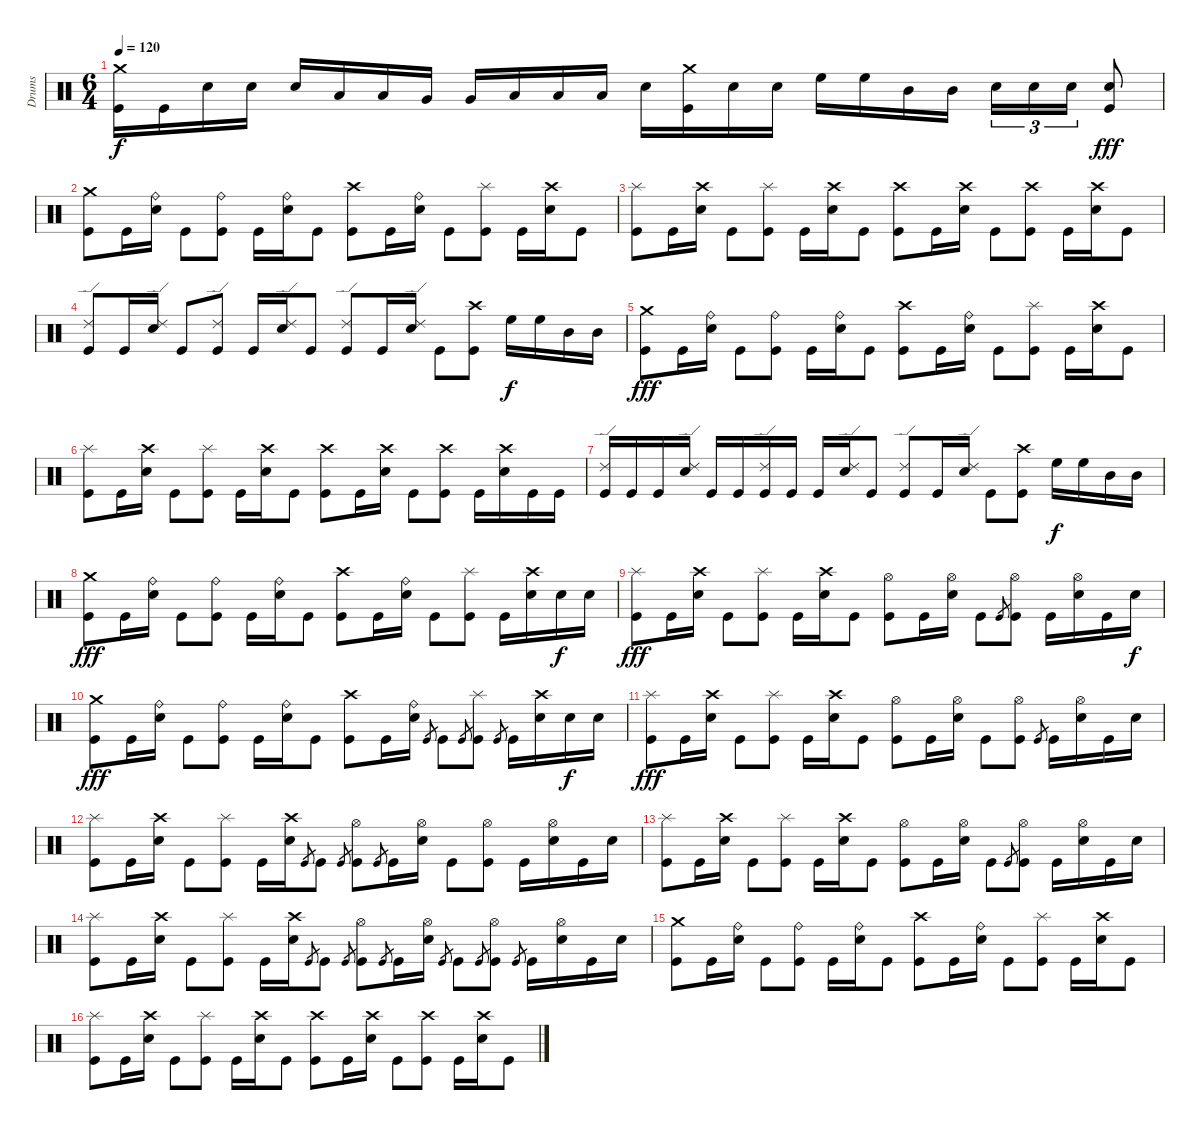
\track ("Drums" "Drums") {instrument percussion}
\staff {score}
\articulation defaults
\ts (6 4)
\tempo 120
\clef neutral
\ks c
("Crash medium (hit)" "Kick (hit)").16{dy f} "Kick (hit)".16 "Electric Snare (hit)".16 "Electric Snare (hit)".16 "Electric Snare (hit)".16 "Low Tom (hit)".16 "Low Tom (hit)".16 "Very Low Tom (hit)".16 "Very Low Tom (hit)".16 "Low Floor Tom (hit)".16 "Low Floor Tom (hit)".16 "Low Floor Tom (hit)".16 "Electric Snare (hit)".16 ("Crash medium (hit)" "Kick (hit)").16 "Electric Snare (hit)".16 "Electric Snare (hit)".16 "High Floor Tom (hit)".16 "High Floor Tom (hit)".16 "Mid Tom (hit)".16 "Mid Tom (hit)".16 "Electric Snare (hit)".16{tu (3 2)} "Electric Snare (hit)".16{tu (3 2)} "Electric Snare (hit)".16{tu (3 2)} ("Electric Snare (hit)" "Kick (hit)").8{dy fff} |
("Crash medium (hit)" "Kick (hit)").8 "Kick (hit)".16 ("Ride (bell)" "Electric Snare (hit)").16 "Kick (hit)".8 ("Ride (bell)" "Kick (hit)").8 "Kick (hit)".16 ("Ride (bell)" "Electric Snare (hit)").16 "Kick (hit)".8 ("Crash high (hit)" "Kick (hit)").8 "Kick (hit)".16 ("Ride (bell)" "Electric Snare (hit)").16 "Kick (hit)".8 ("Splash (hit)" "Kick (hit)").8 "Kick (hit)".16 ("Crash high (hit)" "Electric Snare (hit)").16 "Kick (hit)".8 |
("Splash (hit)" "Kick (hit)").8 "Kick (hit)".16 ("Crash high (hit)" "Electric Snare (hit)").16 "Kick (hit)".8 ("Splash (hit)" "Kick (hit)").8 "Kick (hit)".16 ("Crash high (hit)" "Electric Snare (hit)").16 "Kick (hit)".8 ("Crash high (hit)" "Kick (hit)").8 "Kick (hit)".16 ("Crash high (hit)" "Electric Snare (hit)").16 "Kick (hit)".8 ("Crash high (hit)" "Kick (hit)").8 "Kick (hit)".16 ("Crash high (hit)" "Electric Snare (hit)").16 "Kick (hit)".8 |
("Ride (edge) 2" "Kick (hit)").8 "Kick (hit)".16 ("Ride (edge) 2" "Electric Snare (hit)").16 "Kick (hit)".8 ("Ride (edge) 2" "Kick (hit)").8 "Kick (hit)".16 ("Ride (edge) 2" "Electric Snare (hit)").16 "Kick (hit)".8 ("Ride (edge) 2" "Kick (hit)").8 "Kick (hit)".16 ("Ride (edge) 2" "Electric Snare (hit)").16 "Kick (hit)".8 ("Crash high (hit)" "Kick (hit)").8 "High Floor Tom (hit)".16{dy f} "High Floor Tom (hit)".16 "Mid Tom (hit)".16 "Mid Tom (hit)".16 |
("Crash medium (hit)" "Kick (hit)").8{dy fff} "Kick (hit)".16 ("Ride (bell)" "Electric Snare (hit)").16 "Kick (hit)".8 ("Ride (bell)" "Kick (hit)").8 "Kick (hit)".16 ("Ride (bell)" "Electric Snare (hit)").16 "Kick (hit)".8 ("Crash high (hit)" "Kick (hit)").8 "Kick (hit)".16 ("Ride (bell)" "Electric Snare (hit)").16 "Kick (hit)".8 ("Splash (hit)" "Kick (hit)").8 "Kick (hit)".16 ("Crash high (hit)" "Electric Snare (hit)").16 "Kick (hit)".8 |
("Splash (hit)" "Kick (hit)").8 "Kick (hit)".16 ("Crash high (hit)" "Electric Snare (hit)").16 "Kick (hit)".8 ("Splash (hit)" "Kick (hit)").8 "Kick (hit)".16 ("Crash high (hit)" "Electric Snare (hit)").16 "Kick (hit)".8 ("Crash high (hit)" "Kick (hit)").8 "Kick (hit)".16 ("Crash high (hit)" "Electric Snare (hit)").16 "Kick (hit)".8 ("Crash high (hit)" "Kick (hit)").8 "Kick (hit)".16 ("Crash high (hit)" "Electric Snare (hit)").16 "Kick (hit)".16 "Kick (hit)".16 |
("Ride (edge) 2" "Kick (hit)").16 "Kick (hit)".16 "Kick (hit)".16 ("Ride (edge) 2" "Electric Snare (hit)").16 "Kick (hit)".16 "Kick (hit)".16 ("Ride (edge) 2" "Kick (hit)").16 "Kick (hit)".16 "Kick (hit)".16 ("Ride (edge) 2" "Electric Snare (hit)").16 "Kick (hit)".8 ("Ride (edge) 2" "Kick (hit)").8 "Kick (hit)".16 ("Ride (edge) 2" "Electric Snare (hit)").16 "Kick (hit)".8 ("Crash high (hit)" "Kick (hit)").8 "High Floor Tom (hit)".16{dy f} "High Floor Tom (hit)".16 "Mid Tom (hit)".16 "Mid Tom (hit)".16 |
("Crash medium (hit)" "Kick (hit)").8{dy fff} "Kick (hit)".16 ("Ride (bell)" "Electric Snare (hit)").16 "Kick (hit)".8 ("Ride (bell)" "Kick (hit)").8 "Kick (hit)".16 ("Ride (bell)" "Electric Snare (hit)").16 "Kick (hit)".8 ("Crash high (hit)" "Kick (hit)").8 "Kick (hit)".16 ("Ride (bell)" "Electric Snare (hit)").16 "Kick (hit)".8 ("Splash (hit)" "Kick (hit)").8 "Kick (hit)".16 ("Crash high (hit)" "Electric Snare (hit)").16 "Electric Snare (hit)".16{dy f} "Electric Snare (hit)".16 |
("Splash (hit)" "Kick (hit)").8{dy fff} "Kick (hit)".16 ("Crash high (hit)" "Electric Snare (hit)").16 "Kick (hit)".8 ("Splash (hit)" "Kick (hit)").8 "Kick (hit)".16 ("Crash high (hit)" "Electric Snare (hit)").16 "Kick (hit)".8 ("Hi-Hat (open)" "Kick (hit)").8 "Kick (hit)".16 ("Hi-Hat (open)" "Electric Snare (hit)").16 "Kick (hit)".8 "Kick (hit)".8{gr} ("Hi-Hat (open)" "Kick (hit)").8 "Kick (hit)".16 ("Hi-Hat (open)" "Electric Snare (hit)").16 "Kick (hit)".16 "Electric Snare (hit)".16{dy f} |
("Crash medium (hit)" "Kick (hit)").8{dy fff} "Kick (hit)".16 ("Ride (bell)" "Electric Snare (hit)").16 "Kick (hit)".8 ("Ride (bell)" "Kick (hit)").8 "Kick (hit)".16 ("Ride (bell)" "Electric Snare (hit)").16 "Kick (hit)".8 ("Crash high (hit)" "Kick (hit)").8 "Kick (hit)".16 ("Ride (bell)" "Electric Snare (hit)").16 "Kick (hit)".8{gr} "Kick (hit)".8 "Kick (hit)".8{gr} ("Splash (hit)" "Kick (hit)").8 "Kick (hit)".8{gr} "Kick (hit)".16 ("Crash high (hit)" "Electric Snare (hit)").16 "Electric Snare (hit)".16{dy f} "Electric Snare (hit)".16 |
("Splash (hit)" "Kick (hit)").8{dy fff} "Kick (hit)".16 ("Crash high (hit)" "Electric Snare (hit)").16 "Kick (hit)".8 ("Splash (hit)" "Kick (hit)").8 "Kick (hit)".16 ("Crash high (hit)" "Electric Snare (hit)").16 "Kick (hit)".8 ("Hi-Hat (open)" "Kick (hit)").8 "Kick (hit)".16 ("Hi-Hat (open)" "Electric Snare (hit)").16 "Kick (hit)".8 ("Hi-Hat (open)" "Kick (hit)").8 "Kick (hit)".8{gr} "Kick (hit)".16 ("Hi-Hat (open)" "Electric Snare (hit)").16 "Kick (hit)".16 "Electric Snare (hit)".16 |
("Splash (hit)" "Kick (hit)").8 "Kick (hit)".16 ("Crash high (hit)" "Electric Snare (hit)").16 "Kick (hit)".8 ("Splash (hit)" "Kick (hit)").8 "Kick (hit)".16 ("Crash high (hit)" "Electric Snare (hit)").16 "Kick (hit)".8{gr} "Kick (hit)".8 "Kick (hit)".8{gr} ("Hi-Hat (open)" "Kick (hit)").8 "Kick (hit)".8{gr} "Kick (hit)".16 ("Hi-Hat (open)" "Electric Snare (hit)").16 "Kick (hit)".8 ("Hi-Hat (open)" "Kick (hit)").8 "Kick (hit)".16 ("Hi-Hat (open)" "Electric Snare (hit)").16 "Kick (hit)".16 "Electric Snare (hit)".16 |
("Splash (hit)" "Kick (hit)").8 "Kick (hit)".16 ("Crash high (hit)" "Electric Snare (hit)").16 "Kick (hit)".8 ("Splash (hit)" "Kick (hit)").8 "Kick (hit)".16 ("Crash high (hit)" "Electric Snare (hit)").16 "Kick (hit)".8 ("Hi-Hat (open)" "Kick (hit)").8 "Kick (hit)".16 ("Hi-Hat (open)" "Electric Snare (hit)").16 "Kick (hit)".8 "Kick (hit)".8{gr} ("Hi-Hat (open)" "Kick (hit)").8 "Kick (hit)".16 ("Hi-Hat (open)" "Electric Snare (hit)").16 "Kick (hit)".16 "Electric Snare (hit)".16 |
("Splash (hit)" "Kick (hit)").8 "Kick (hit)".16 ("Crash high (hit)" "Electric Snare (hit)").16 "Kick (hit)".8 ("Splash (hit)" "Kick (hit)").8 "Kick (hit)".16 ("Crash high (hit)" "Electric Snare (hit)").16 "Kick (hit)".8{gr} "Kick (hit)".8 "Kick (hit)".8{gr} ("Hi-Hat (open)" "Kick (hit)").8 "Kick (hit)".8{gr} "Kick (hit)".16 ("Hi-Hat (open)" "Electric Snare (hit)").16 "Kick (hit)".8{gr} "Kick (hit)".8 "Kick (hit)".8{gr} ("Hi-Hat (open)" "Kick (hit)").8 "Kick (hit)".8{gr} "Kick (hit)".16 ("Hi-Hat (open)" "Electric Snare (hit)").16 "Kick (hit)".16 "Electric Snare (hit)".16 |
("Crash medium (hit)" "Kick (hit)").8 "Kick (hit)".16 ("Ride (bell)" "Electric Snare (hit)").16 "Kick (hit)".8 ("Ride (bell)" "Kick (hit)").8 "Kick (hit)".16 ("Ride (bell)" "Electric Snare (hit)").16 "Kick (hit)".8 ("Crash high (hit)" "Kick (hit)").8 "Kick (hit)".16 ("Ride (bell)" "Electric Snare (hit)").16 "Kick (hit)".8 ("Splash (hit)" "Kick (hit)").8 "Kick (hit)".16 ("Crash high (hit)" "Electric Snare (hit)").16 "Kick (hit)".8 |
("Splash (hit)" "Kick (hit)").8 "Kick (hit)".16 ("Crash high (hit)" "Electric Snare (hit)").16 "Kick (hit)".8 ("Splash (hit)" "Kick (hit)").8 "Kick (hit)".16 ("Crash high (hit)" "Electric Snare (hit)").16 "Kick (hit)".8 ("Crash high (hit)" "Kick (hit)").8 "Kick (hit)".16 ("Crash high (hit)" "Electric Snare (hit)").16 "Kick (hit)".8 ("Crash high (hit)" "Kick (hit)").8 "Kick (hit)".16 ("Crash high (hit)" "Electric Snare (hit)").16 "Kick (hit)".8
